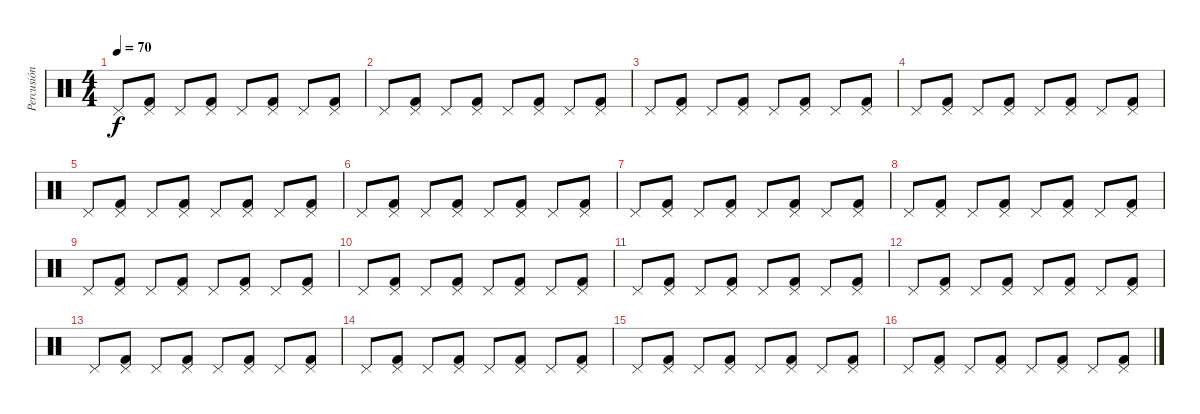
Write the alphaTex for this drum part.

\track ("Percusión" "Percusión") {instrument percussion}
\staff {score}
\articulation defaults
\ts (4 4)
\tempo 70
\clef neutral
\ks c "Pedal Hi-Hat (hit)".8{dy f}
("Pedal Hi-Hat (hit)" "Kick (hit) 2").8 "Pedal Hi-Hat (hit)".8 ("Pedal Hi-Hat (hit)" "Kick (hit) 2").8 "Pedal Hi-Hat (hit)".8 ("Pedal Hi-Hat (hit)" "Kick (hit) 2").8 "Pedal Hi-Hat (hit)".8 ("Pedal Hi-Hat (hit)" "Kick (hit) 2").8 |
"Pedal Hi-Hat (hit)".8 ("Pedal Hi-Hat (hit)" "Kick (hit) 2").8 "Pedal Hi-Hat (hit)".8 ("Pedal Hi-Hat (hit)" "Kick (hit) 2").8 "Pedal Hi-Hat (hit)".8 ("Pedal Hi-Hat (hit)" "Kick (hit) 2").8 "Pedal Hi-Hat (hit)".8 ("Pedal Hi-Hat (hit)" "Kick (hit) 2").8 |
"Pedal Hi-Hat (hit)".8 ("Pedal Hi-Hat (hit)" "Kick (hit) 2").8 "Pedal Hi-Hat (hit)".8 ("Pedal Hi-Hat (hit)" "Kick (hit) 2").8 "Pedal Hi-Hat (hit)".8 ("Pedal Hi-Hat (hit)" "Kick (hit) 2").8 "Pedal Hi-Hat (hit)".8 ("Pedal Hi-Hat (hit)" "Kick (hit) 2").8 |
"Pedal Hi-Hat (hit)".8 ("Pedal Hi-Hat (hit)" "Kick (hit) 2").8 "Pedal Hi-Hat (hit)".8 ("Pedal Hi-Hat (hit)" "Kick (hit) 2").8 "Pedal Hi-Hat (hit)".8 ("Pedal Hi-Hat (hit)" "Kick (hit) 2").8 "Pedal Hi-Hat (hit)".8 ("Pedal Hi-Hat (hit)" "Kick (hit) 2").8 |
"Pedal Hi-Hat (hit)".8 ("Pedal Hi-Hat (hit)" "Kick (hit) 2").8 "Pedal Hi-Hat (hit)".8 ("Pedal Hi-Hat (hit)" "Kick (hit) 2").8 "Pedal Hi-Hat (hit)".8 ("Pedal Hi-Hat (hit)" "Kick (hit) 2").8 "Pedal Hi-Hat (hit)".8 ("Pedal Hi-Hat (hit)" "Kick (hit) 2").8 |
"Pedal Hi-Hat (hit)".8 ("Pedal Hi-Hat (hit)" "Kick (hit) 2").8 "Pedal Hi-Hat (hit)".8 ("Pedal Hi-Hat (hit)" "Kick (hit) 2").8 "Pedal Hi-Hat (hit)".8 ("Pedal Hi-Hat (hit)" "Kick (hit) 2").8 "Pedal Hi-Hat (hit)".8 ("Pedal Hi-Hat (hit)" "Kick (hit) 2").8 |
"Pedal Hi-Hat (hit)".8 ("Pedal Hi-Hat (hit)" "Kick (hit) 2").8 "Pedal Hi-Hat (hit)".8 ("Pedal Hi-Hat (hit)" "Kick (hit) 2").8 "Pedal Hi-Hat (hit)".8 ("Pedal Hi-Hat (hit)" "Kick (hit) 2").8 "Pedal Hi-Hat (hit)".8 ("Pedal Hi-Hat (hit)" "Kick (hit) 2").8 |
"Pedal Hi-Hat (hit)".8 ("Pedal Hi-Hat (hit)" "Kick (hit) 2").8 "Pedal Hi-Hat (hit)".8 ("Pedal Hi-Hat (hit)" "Kick (hit) 2").8 "Pedal Hi-Hat (hit)".8 ("Pedal Hi-Hat (hit)" "Kick (hit) 2").8 "Pedal Hi-Hat (hit)".8 ("Pedal Hi-Hat (hit)" "Kick (hit) 2").8 |
"Pedal Hi-Hat (hit)".8 ("Pedal Hi-Hat (hit)" "Kick (hit) 2").8 "Pedal Hi-Hat (hit)".8 ("Pedal Hi-Hat (hit)" "Kick (hit) 2").8 "Pedal Hi-Hat (hit)".8 ("Pedal Hi-Hat (hit)" "Kick (hit) 2").8 "Pedal Hi-Hat (hit)".8 ("Pedal Hi-Hat (hit)" "Kick (hit) 2").8 |
"Pedal Hi-Hat (hit)".8 ("Pedal Hi-Hat (hit)" "Kick (hit) 2").8 "Pedal Hi-Hat (hit)".8 ("Pedal Hi-Hat (hit)" "Kick (hit) 2").8 "Pedal Hi-Hat (hit)".8 ("Pedal Hi-Hat (hit)" "Kick (hit) 2").8 "Pedal Hi-Hat (hit)".8 ("Pedal Hi-Hat (hit)" "Kick (hit) 2").8 |
"Pedal Hi-Hat (hit)".8 ("Pedal Hi-Hat (hit)" "Kick (hit) 2").8 "Pedal Hi-Hat (hit)".8 ("Pedal Hi-Hat (hit)" "Kick (hit) 2").8 "Pedal Hi-Hat (hit)".8 ("Pedal Hi-Hat (hit)" "Kick (hit) 2").8 "Pedal Hi-Hat (hit)".8 ("Pedal Hi-Hat (hit)" "Kick (hit) 2").8 |
"Pedal Hi-Hat (hit)".8 ("Pedal Hi-Hat (hit)" "Kick (hit) 2").8 "Pedal Hi-Hat (hit)".8 ("Pedal Hi-Hat (hit)" "Kick (hit) 2").8 "Pedal Hi-Hat (hit)".8 ("Pedal Hi-Hat (hit)" "Kick (hit) 2").8 "Pedal Hi-Hat (hit)".8 ("Pedal Hi-Hat (hit)" "Kick (hit) 2").8 |
"Pedal Hi-Hat (hit)".8 ("Pedal Hi-Hat (hit)" "Kick (hit) 2").8 "Pedal Hi-Hat (hit)".8 ("Pedal Hi-Hat (hit)" "Kick (hit) 2").8 "Pedal Hi-Hat (hit)".8 ("Pedal Hi-Hat (hit)" "Kick (hit) 2").8 "Pedal Hi-Hat (hit)".8 ("Pedal Hi-Hat (hit)" "Kick (hit) 2").8 |
"Pedal Hi-Hat (hit)".8 ("Pedal Hi-Hat (hit)" "Kick (hit) 2").8 "Pedal Hi-Hat (hit)".8 ("Pedal Hi-Hat (hit)" "Kick (hit) 2").8 "Pedal Hi-Hat (hit)".8 ("Pedal Hi-Hat (hit)" "Kick (hit) 2").8 "Pedal Hi-Hat (hit)".8 ("Pedal Hi-Hat (hit)" "Kick (hit) 2").8 |
"Pedal Hi-Hat (hit)".8 ("Pedal Hi-Hat (hit)" "Kick (hit) 2").8 "Pedal Hi-Hat (hit)".8 ("Pedal Hi-Hat (hit)" "Kick (hit) 2").8 "Pedal Hi-Hat (hit)".8 ("Pedal Hi-Hat (hit)" "Kick (hit) 2").8 "Pedal Hi-Hat (hit)".8 ("Pedal Hi-Hat (hit)" "Kick (hit) 2").8 |
"Pedal Hi-Hat (hit)".8 ("Pedal Hi-Hat (hit)" "Kick (hit) 2").8 "Pedal Hi-Hat (hit)".8 ("Pedal Hi-Hat (hit)" "Kick (hit) 2").8 "Pedal Hi-Hat (hit)".8 ("Pedal Hi-Hat (hit)" "Kick (hit) 2").8 "Pedal Hi-Hat (hit)".8 ("Pedal Hi-Hat (hit)" "Kick (hit) 2").8
